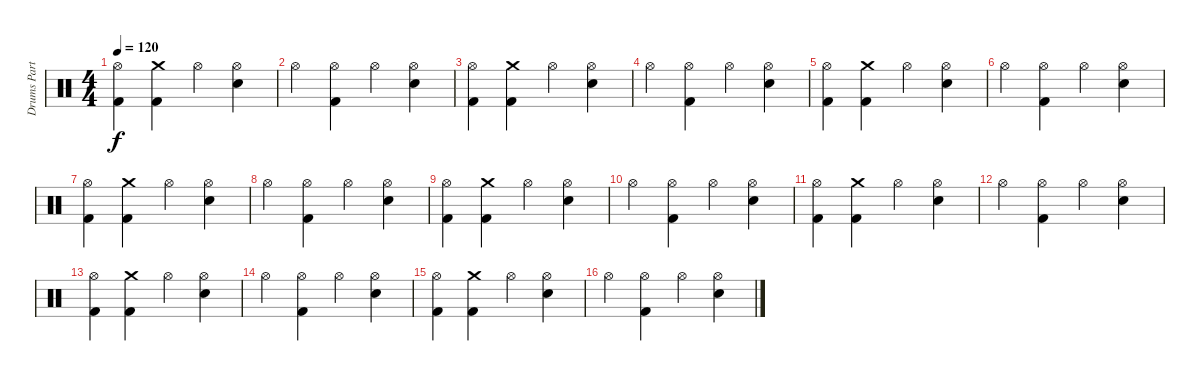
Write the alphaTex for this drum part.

\track ("Drums Part" "Drums Part") {instrument percussion}
\staff {score}
\articulation defaults
\ts (4 4)
\tempo 120
\clef neutral
\ks c
("Hi-Hat (open)" "Kick (hit) 2").4{dy f} ("Crash medium (hit)" "Kick (hit) 2").4 "Hi-Hat (open)".4 ("Hi-Hat (open)" "Electric Snare (hit)").4 |
"Hi-Hat (open)".4 ("Hi-Hat (open)" "Kick (hit) 2").4 "Hi-Hat (open)".4 ("Hi-Hat (open)" "Electric Snare (hit)").4 |
("Hi-Hat (open)" "Kick (hit) 2").4 ("Crash medium (hit)" "Kick (hit) 2").4 "Hi-Hat (open)".4 ("Hi-Hat (open)" "Electric Snare (hit)").4 |
"Hi-Hat (open)".4 ("Hi-Hat (open)" "Kick (hit) 2").4 "Hi-Hat (open)".4 ("Hi-Hat (open)" "Electric Snare (hit)").4 |
("Hi-Hat (open)" "Kick (hit) 2").4 ("Crash medium (hit)" "Kick (hit) 2").4 "Hi-Hat (open)".4 ("Hi-Hat (open)" "Electric Snare (hit)").4 |
"Hi-Hat (open)".4 ("Hi-Hat (open)" "Kick (hit) 2").4 "Hi-Hat (open)".4 ("Hi-Hat (open)" "Electric Snare (hit)").4 |
("Hi-Hat (open)" "Kick (hit) 2").4 ("Crash medium (hit)" "Kick (hit) 2").4 "Hi-Hat (open)".4 ("Hi-Hat (open)" "Electric Snare (hit)").4 |
"Hi-Hat (open)".4 ("Hi-Hat (open)" "Kick (hit) 2").4 "Hi-Hat (open)".4 ("Hi-Hat (open)" "Electric Snare (hit)").4 |
("Hi-Hat (open)" "Kick (hit) 2").4 ("Crash medium (hit)" "Kick (hit) 2").4 "Hi-Hat (open)".4 ("Hi-Hat (open)" "Electric Snare (hit)").4 |
"Hi-Hat (open)".4 ("Hi-Hat (open)" "Kick (hit) 2").4 "Hi-Hat (open)".4 ("Hi-Hat (open)" "Electric Snare (hit)").4 |
("Hi-Hat (open)" "Kick (hit) 2").4 ("Crash medium (hit)" "Kick (hit) 2").4 "Hi-Hat (open)".4 ("Hi-Hat (open)" "Electric Snare (hit)").4 |
"Hi-Hat (open)".4 ("Hi-Hat (open)" "Kick (hit) 2").4 "Hi-Hat (open)".4 ("Hi-Hat (open)" "Electric Snare (hit)").4 |
("Hi-Hat (open)" "Kick (hit) 2").4 ("Crash medium (hit)" "Kick (hit) 2").4 "Hi-Hat (open)".4 ("Hi-Hat (open)" "Electric Snare (hit)").4 |
"Hi-Hat (open)".4 ("Hi-Hat (open)" "Kick (hit) 2").4 "Hi-Hat (open)".4 ("Hi-Hat (open)" "Electric Snare (hit)").4 |
("Hi-Hat (open)" "Kick (hit) 2").4 ("Crash medium (hit)" "Kick (hit) 2").4 "Hi-Hat (open)".4 ("Hi-Hat (open)" "Electric Snare (hit)").4 |
"Hi-Hat (open)".4 ("Hi-Hat (open)" "Kick (hit) 2").4 "Hi-Hat (open)".4 ("Hi-Hat (open)" "Electric Snare (hit)").4
